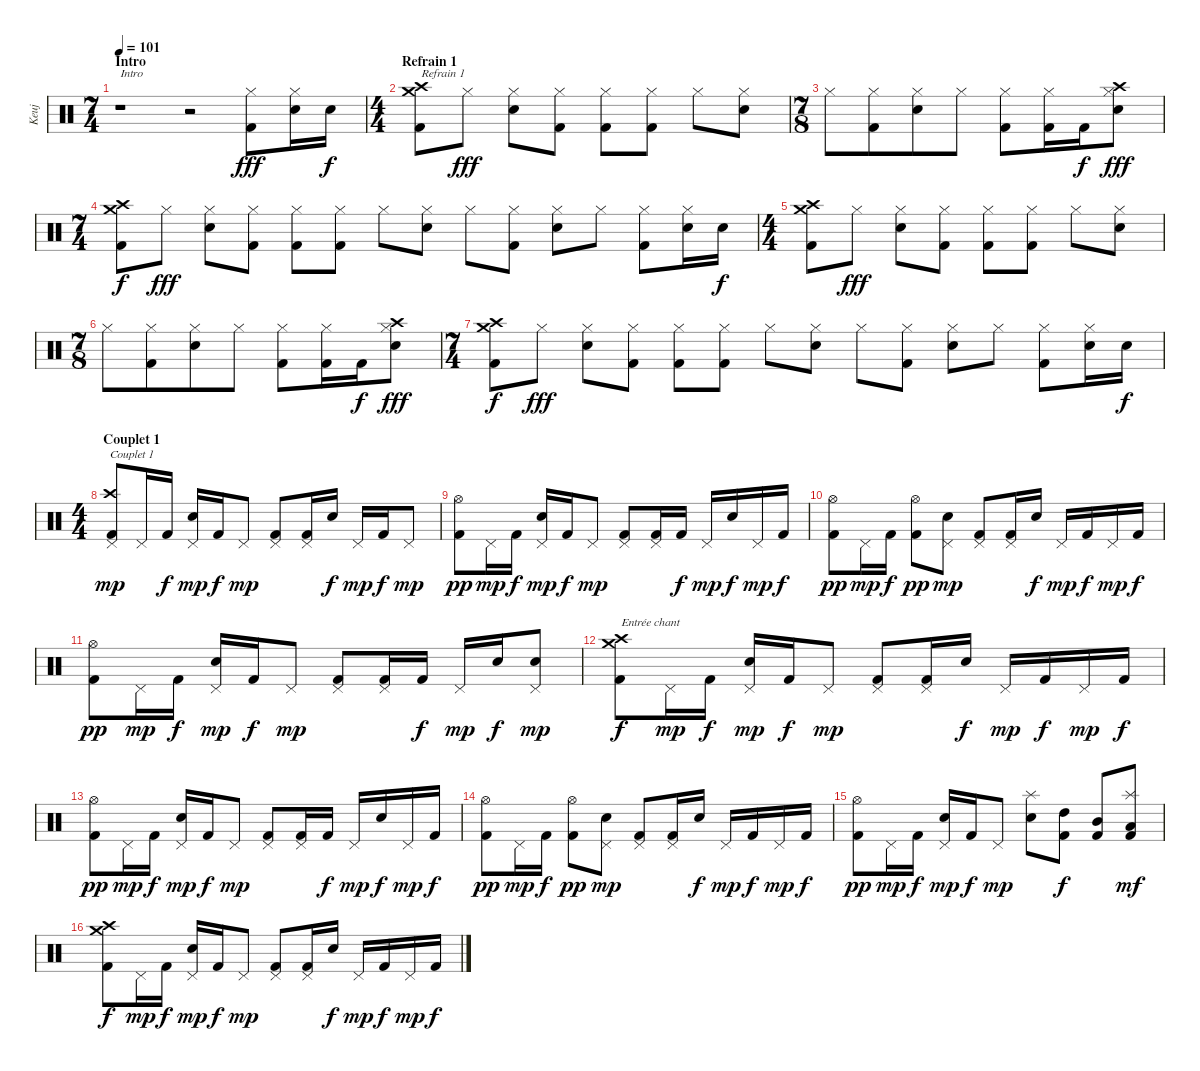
\track ("Keuj" "Keuj") {instrument percussion}
\staff {score}
\articulation defaults
\ts (7 4)
\section ("" "Intro")
\tempo 101
\clef neutral
\ks c
r.1{txt "Intro" dy fff} r.2 ("Hi-Hat (closed)" "Kick (hit) 2").8 ("Electric Snare (hit)" "Hi-Hat (closed)").16 "Electric Snare (hit)".16{dy f} |
\ts (4 4)
\section ("" "Refrain 1")
("Crash medium (hit)" "Crash high (hit)" "Kick (hit) 2").8{txt "Refrain 1"} "Hi-Hat (closed)".8{dy fff} ("Electric Snare (hit)" "Hi-Hat (closed)").8 ("Hi-Hat (closed)" "Kick (hit) 2").8 ("Hi-Hat (closed)" "Kick (hit) 2").8 ("Hi-Hat (closed)" "Kick (hit) 2").8 "Hi-Hat (closed)".8 ("Electric Snare (hit)" "Hi-Hat (closed)").8 |
\ts (7 8)
"Hi-Hat (closed)".8 ("Hi-Hat (closed)" "Kick (hit) 2").8 ("Electric Snare (hit)" "Hi-Hat (closed)").8 "Hi-Hat (closed)".8 ("Hi-Hat (closed)" "Kick (hit) 2").8 ("Hi-Hat (closed)" "Kick (hit) 2").16 "Kick (hit) 2".16{dy f} ("Crash high (hit)" "Electric Snare (hit)" "Hi-Hat (closed)").8{dy fff} |
\ts (7 4)
("Crash medium (hit)" "Crash high (hit)" "Kick (hit) 2").8{dy f} "Hi-Hat (closed)".8{dy fff} ("Electric Snare (hit)" "Hi-Hat (closed)").8 ("Hi-Hat (closed)" "Kick (hit) 2").8 ("Hi-Hat (closed)" "Kick (hit) 2").8 ("Hi-Hat (closed)" "Kick (hit) 2").8 "Hi-Hat (closed)".8 ("Electric Snare (hit)" "Hi-Hat (closed)").8 "Hi-Hat (closed)".8 ("Hi-Hat (closed)" "Kick (hit) 2").8 ("Electric Snare (hit)" "Hi-Hat (closed)").8 "Hi-Hat (closed)".8 ("Hi-Hat (closed)" "Kick (hit) 2").8 ("Electric Snare (hit)" "Hi-Hat (closed)").16 "Electric Snare (hit)".16{dy f} |
\ts (4 4)
("Crash medium (hit)" "Crash high (hit)" "Kick (hit) 2").8 "Hi-Hat (closed)".8{dy fff} ("Electric Snare (hit)" "Hi-Hat (closed)").8 ("Hi-Hat (closed)" "Kick (hit) 2").8 ("Hi-Hat (closed)" "Kick (hit) 2").8 ("Hi-Hat (closed)" "Kick (hit) 2").8 "Hi-Hat (closed)".8 ("Electric Snare (hit)" "Hi-Hat (closed)").8 |
\ts (7 8)
"Hi-Hat (closed)".8 ("Hi-Hat (closed)" "Kick (hit) 2").8 ("Electric Snare (hit)" "Hi-Hat (closed)").8 "Hi-Hat (closed)".8 ("Hi-Hat (closed)" "Kick (hit) 2").8 ("Hi-Hat (closed)" "Kick (hit) 2").16 "Kick (hit) 2".16{dy f} ("Crash high (hit)" "Electric Snare (hit)" "Hi-Hat (closed)").8{dy fff} |
\ts (7 4)
("Crash medium (hit)" "Crash high (hit)" "Kick (hit) 2").8{dy f} "Hi-Hat (closed)".8{dy fff} ("Electric Snare (hit)" "Hi-Hat (closed)").8 ("Hi-Hat (closed)" "Kick (hit) 2").8 ("Hi-Hat (closed)" "Kick (hit) 2").8 ("Hi-Hat (closed)" "Kick (hit) 2").8 "Hi-Hat (closed)".8 ("Electric Snare (hit)" "Hi-Hat (closed)").8 "Hi-Hat (closed)".8 ("Hi-Hat (closed)" "Kick (hit) 2").8 ("Electric Snare (hit)" "Hi-Hat (closed)").8 "Hi-Hat (closed)".8 ("Hi-Hat (closed)" "Kick (hit) 2").8 ("Electric Snare (hit)" "Hi-Hat (closed)").16 "Electric Snare (hit)".16{dy f} |
\ts (4 4)
\section ("" "Couplet 1")
("Crash high (hit)" "Pedal Hi-Hat (hit)" "Kick (hit) 2").8{txt "Couplet 1" dy mp} "Pedal Hi-Hat (hit)".16 "Kick (hit) 2".16{dy f} ("Electric Snare (hit)" "Pedal Hi-Hat (hit)").16{dy mp} "Kick (hit) 2".16{dy f} "Pedal Hi-Hat (hit)".8{dy mp} ("Pedal Hi-Hat (hit)" "Kick (hit) 2").8 ("Pedal Hi-Hat (hit)" "Kick (hit) 2").16 "Electric Snare (hit)".16{dy f} "Pedal Hi-Hat (hit)".16{dy mp} "Kick (hit) 2".16{dy f} "Pedal Hi-Hat (hit)".8{dy mp} |
("Hi-Hat (open)" "Kick (hit) 2").8{dy pp} "Pedal Hi-Hat (hit)".16{dy mp} "Kick (hit) 2".16{dy f} ("Electric Snare (hit)" "Pedal Hi-Hat (hit)").16{dy mp} "Kick (hit) 2".16{dy f} "Pedal Hi-Hat (hit)".8{dy mp} ("Pedal Hi-Hat (hit)" "Kick (hit) 2").8 ("Pedal Hi-Hat (hit)" "Kick (hit) 2").16 "Kick (hit) 2".16{dy f} "Pedal Hi-Hat (hit)".16{dy mp} "Electric Snare (hit)".16{dy f} "Pedal Hi-Hat (hit)".16{dy mp} "Kick (hit) 2".16{dy f} |
("Hi-Hat (open)" "Kick (hit) 2").8{dy pp} "Pedal Hi-Hat (hit)".16{dy mp} "Kick (hit) 2".16{dy f} ("Hi-Hat (open)" "Kick (hit) 2").8{dy pp} ("Electric Snare (hit)" "Pedal Hi-Hat (hit)").8{dy mp} ("Pedal Hi-Hat (hit)" "Kick (hit) 2").8 ("Pedal Hi-Hat (hit)" "Kick (hit) 2").16 "Electric Snare (hit)".16{dy f} "Pedal Hi-Hat (hit)".16{dy mp} "Kick (hit) 2".16{dy f} "Pedal Hi-Hat (hit)".16{dy mp} "Kick (hit) 2".16{dy f} |
("Hi-Hat (open)" "Kick (hit) 2").8{dy pp} "Pedal Hi-Hat (hit)".16{dy mp} "Kick (hit) 2".16{dy f} ("Electric Snare (hit)" "Pedal Hi-Hat (hit)").16{dy mp} "Kick (hit) 2".16{dy f} "Pedal Hi-Hat (hit)".8{dy mp} ("Pedal Hi-Hat (hit)" "Kick (hit) 2").8 ("Pedal Hi-Hat (hit)" "Kick (hit) 2").16 "Kick (hit) 2".16{dy f} "Pedal Hi-Hat (hit)".16{dy mp} "Electric Snare (hit)".16{dy f} ("Electric Snare (hit)" "Pedal Hi-Hat (hit)").8{dy mp} |
("Crash medium (hit)" "Crash high (hit)" "Kick (hit) 2").8{txt "Entrée chant" dy f} "Pedal Hi-Hat (hit)".16{dy mp} "Kick (hit) 2".16{dy f} ("Electric Snare (hit)" "Pedal Hi-Hat (hit)").16{dy mp} "Kick (hit) 2".16{dy f} "Pedal Hi-Hat (hit)".8{dy mp} ("Pedal Hi-Hat (hit)" "Kick (hit) 2").8 ("Pedal Hi-Hat (hit)" "Kick (hit) 2").16 "Electric Snare (hit)".16{dy f} "Pedal Hi-Hat (hit)".16{dy mp} "Kick (hit) 2".16{dy f} "Pedal Hi-Hat (hit)".16{dy mp} "Kick (hit) 2".16{dy f} |
("Hi-Hat (open)" "Kick (hit) 2").8{dy pp} "Pedal Hi-Hat (hit)".16{dy mp} "Kick (hit) 2".16{dy f} ("Electric Snare (hit)" "Pedal Hi-Hat (hit)").16{dy mp} "Kick (hit) 2".16{dy f} "Pedal Hi-Hat (hit)".8{dy mp} ("Pedal Hi-Hat (hit)" "Kick (hit) 2").8 ("Pedal Hi-Hat (hit)" "Kick (hit) 2").16 "Kick (hit) 2".16{dy f} "Pedal Hi-Hat (hit)".16{dy mp} "Electric Snare (hit)".16{dy f} "Pedal Hi-Hat (hit)".16{dy mp} "Kick (hit) 2".16{dy f} |
("Hi-Hat (open)" "Kick (hit) 2").8{dy pp} "Pedal Hi-Hat (hit)".16{dy mp} "Kick (hit) 2".16{dy f} ("Hi-Hat (open)" "Kick (hit) 2").8{dy pp} ("Electric Snare (hit)" "Pedal Hi-Hat (hit)").8{dy mp} ("Pedal Hi-Hat (hit)" "Kick (hit) 2").8 ("Pedal Hi-Hat (hit)" "Kick (hit) 2").16 "Electric Snare (hit)".16{dy f} "Pedal Hi-Hat (hit)".16{dy mp} "Kick (hit) 2".16{dy f} "Pedal Hi-Hat (hit)".16{dy mp} "Kick (hit) 2".16{dy f} |
("Hi-Hat (open)" "Kick (hit) 2").8{dy pp} "Pedal Hi-Hat (hit)".16{dy mp} "Kick (hit) 2".16{dy f} ("Electric Snare (hit)" "Pedal Hi-Hat (hit)").16{dy mp} "Kick (hit) 2".16{dy f} "Pedal Hi-Hat (hit)".8{dy mp} ("Splash (hit)" "Electric Snare (hit)").8 ("High Tom (hit)" "Kick (hit) 2").8{dy f} ("Mid Tom (hit)" "Kick (hit) 2").8 ("Splash (hit)" "Low Tom (hit)" "Kick (hit) 2").8{dy mf} |
("Crash medium (hit)" "Crash high (hit)" "Kick (hit) 2").8{dy f} "Pedal Hi-Hat (hit)".16{dy mp} "Kick (hit) 2".16{dy f} ("Electric Snare (hit)" "Pedal Hi-Hat (hit)").16{dy mp} "Kick (hit) 2".16{dy f} "Pedal Hi-Hat (hit)".8{dy mp} ("Pedal Hi-Hat (hit)" "Kick (hit) 2").8 ("Pedal Hi-Hat (hit)" "Kick (hit) 2").16 "Electric Snare (hit)".16{dy f} "Pedal Hi-Hat (hit)".16{dy mp} "Kick (hit) 2".16{dy f} "Pedal Hi-Hat (hit)".16{dy mp} "Kick (hit) 2".16{dy f}
